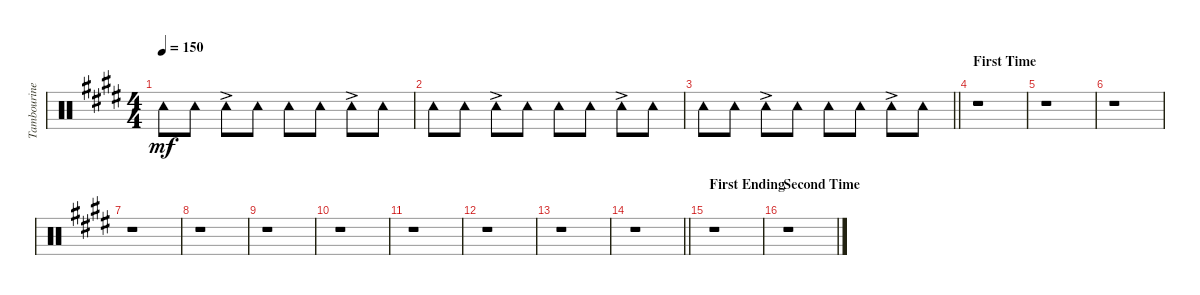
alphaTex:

\track ("Tambourine" "Tambourine") {instrument percussion}
\staff {score}
\articulation defaults
\ts (4 4)
\tempo 150
\clef neutral
\ks e "Tambourine (hit)".8{dy mf} "Tambourine (hit)".8 "Tambourine (hit)"{ac}.8 "Tambourine (hit)".8 "Tambourine (hit)".8 "Tambourine (hit)".8 "Tambourine (hit)"{ac}.8 "Tambourine (hit)".8
|
"Tambourine (hit)".8 "Tambourine (hit)".8 "Tambourine (hit)"{ac}.8 "Tambourine (hit)".8 "Tambourine (hit)".8 "Tambourine (hit)".8 "Tambourine (hit)"{ac}.8 "Tambourine (hit)".8 |
\barLineRight lightlight "Tambourine (hit)".8 "Tambourine (hit)".8 "Tambourine (hit)"{ac}.8 "Tambourine (hit)".8 "Tambourine (hit)".8 "Tambourine (hit)".8 "Tambourine (hit)"{ac}.8 "Tambourine (hit)".8
|
\section ("" "First Time")
r.1 |
r.1 |
r.1 |
r.1 |
r.1 |
r.1 |
r.1 |
r.1 |
r.1 |
r.1 |
\barLineRight lightlight
r.1 |
\section ("" "First Ending")
r.1 |
\section ("" "Second Time")
r.1
